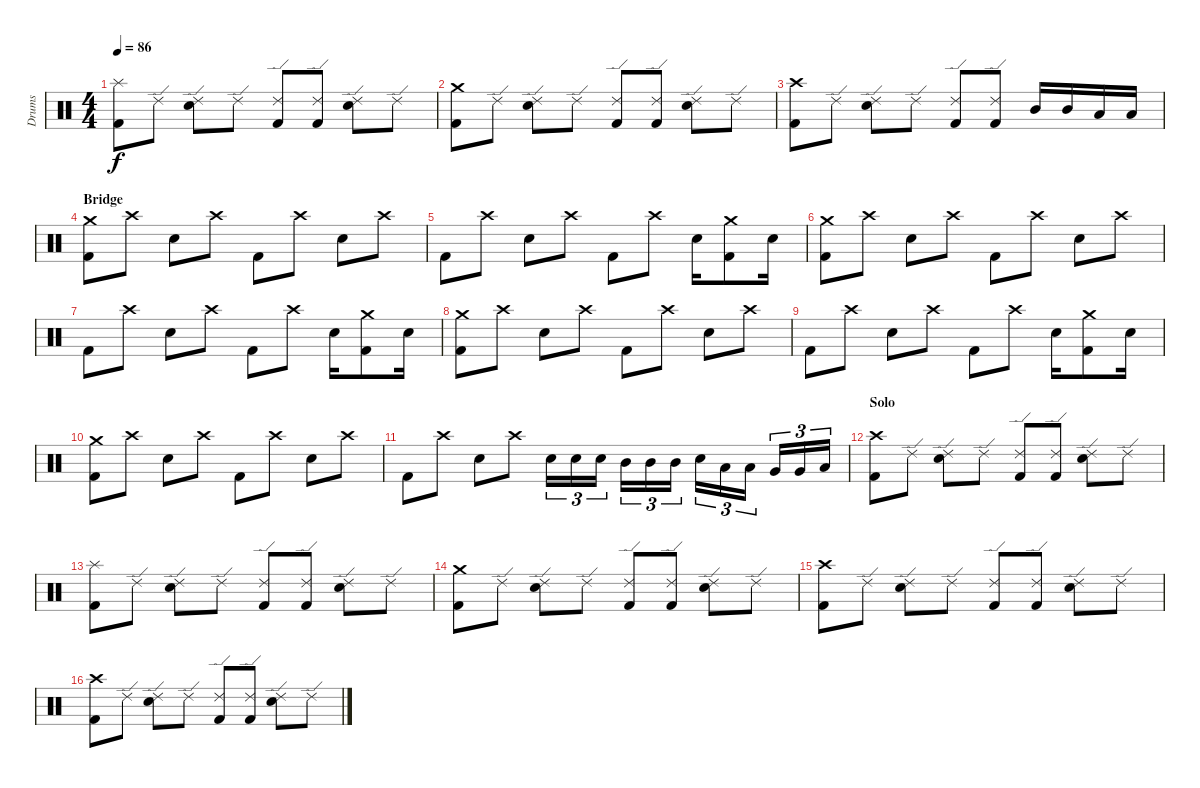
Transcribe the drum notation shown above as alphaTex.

\track ("Drums" "Drums") {instrument percussion}
\staff {score}
\articulation defaults
\ts (4 4)
\tempo 86
\clef neutral
\ks c
("Splash (hit)" "Kick (hit) 2").8{dy f} "Ride (edge) 2".8 ("Ride (edge) 2" "Snare (hit) 2").8 "Ride (edge) 2".8 ("Ride (edge) 2" "Kick (hit) 2").8 ("Ride (edge) 2" "Kick (hit) 2").8 ("Ride (edge) 2" "Snare (hit) 2").8 "Ride (edge) 2".8 |
("Crash medium (hit)" "Kick (hit) 2").8 "Ride (edge) 2".8 ("Ride (edge) 2" "Snare (hit) 2").8 "Ride (edge) 2".8 ("Ride (edge) 2" "Kick (hit) 2").8 ("Ride (edge) 2" "Kick (hit) 2").8 ("Ride (edge) 2" "Snare (hit) 2").8 "Ride (edge) 2".8 |
("Crash high (hit)" "Kick (hit) 2").8 "Ride (edge) 2".8 ("Ride (edge) 2" "Snare (hit) 2").8 "Ride (edge) 2".8 ("Ride (edge) 2" "Kick (hit) 2").8 ("Ride (edge) 2" "Kick (hit) 2").8 "Mid Tom (hit)".16 "Mid Tom (hit)".16 "Low Tom (hit)".16 "Low Tom (hit)".16 |
\section ("" "Bridge")
("Crash medium (hit)" "Kick (hit) 2").8 "Crash high (hit)".8 "Snare (hit) 2".8 "Crash high (hit)".8 "Kick (hit) 2".8 "Crash high (hit)".8 "Snare (hit) 2".8 "Crash high (hit)".8 |
"Kick (hit) 2".8 "Crash high (hit)".8 "Snare (hit) 2".8 "Crash high (hit)".8 "Kick (hit) 2".8 "Crash high (hit)".8 "Snare (hit) 2".16 ("Crash medium (hit)" "Kick (hit) 2").8 "Snare (hit) 2".16 |
("Crash medium (hit)" "Kick (hit) 2").8 "Crash high (hit)".8 "Snare (hit) 2".8 "Crash high (hit)".8 "Kick (hit) 2".8 "Crash high (hit)".8 "Snare (hit) 2".8 "Crash high (hit)".8 |
"Kick (hit) 2".8 "Crash high (hit)".8 "Snare (hit) 2".8 "Crash high (hit)".8 "Kick (hit) 2".8 "Crash high (hit)".8 "Snare (hit) 2".16 ("Crash medium (hit)" "Kick (hit) 2").8 "Snare (hit) 2".16 |
("Crash medium (hit)" "Kick (hit) 2").8 "Crash high (hit)".8 "Snare (hit) 2".8 "Crash high (hit)".8 "Kick (hit) 2".8 "Crash high (hit)".8 "Snare (hit) 2".8 "Crash high (hit)".8 |
"Kick (hit) 2".8 "Crash high (hit)".8 "Snare (hit) 2".8 "Crash high (hit)".8 "Kick (hit) 2".8 "Crash high (hit)".8 "Snare (hit) 2".16 ("Crash medium (hit)" "Kick (hit) 2").8 "Snare (hit) 2".16 |
("Crash medium (hit)" "Kick (hit) 2").8 "Crash high (hit)".8 "Snare (hit) 2".8 "Crash high (hit)".8 "Kick (hit) 2".8 "Crash high (hit)".8 "Snare (hit) 2".8 "Crash high (hit)".8 |
"Kick (hit) 2".8 "Crash high (hit)".8 "Snare (hit) 2".8 "Crash high (hit)".8 "Snare (hit) 2".16{tu (3 2)} "Snare (hit) 2".16{tu (3 2)} "Snare (hit) 2".16{tu (3 2)} "Mid Tom (hit)".16{tu (3 2)} "Mid Tom (hit)".16{tu (3 2)} "Mid Tom (hit)".16{tu (3 2)} "Snare (hit) 2".16{tu (3 2)} "Low Tom (hit)".16{tu (3 2)} "Low Tom (hit)".16{tu (3 2)} "Very Low Tom (hit)".16{tu (3 2)} "Very Low Tom (hit)".16{tu (3 2)} "Low Floor Tom (hit)".16{tu (3 2)} |
\section ("" "Solo")
("Crash high (hit)" "Kick (hit) 2").8 "Ride (edge) 2".8 ("Ride (edge) 2" "Snare (hit) 2").8 "Ride (edge) 2".8 ("Ride (edge) 2" "Kick (hit) 2").8 ("Ride (edge) 2" "Kick (hit) 2").8 ("Ride (edge) 2" "Snare (hit) 2").8 "Ride (edge) 2".8 |
("Splash (hit)" "Kick (hit) 2").8 "Ride (edge) 2".8 ("Ride (edge) 2" "Snare (hit) 2").8 "Ride (edge) 2".8 ("Ride (edge) 2" "Kick (hit) 2").8 ("Ride (edge) 2" "Kick (hit) 2").8 ("Ride (edge) 2" "Snare (hit) 2").8 "Ride (edge) 2".8 |
("Crash medium (hit)" "Kick (hit) 2").8 "Ride (edge) 2".8 ("Ride (edge) 2" "Snare (hit) 2").8 "Ride (edge) 2".8 ("Ride (edge) 2" "Kick (hit) 2").8 ("Ride (edge) 2" "Kick (hit) 2").8 ("Ride (edge) 2" "Snare (hit) 2").8 "Ride (edge) 2".8 |
("Crash high (hit)" "Kick (hit) 2").8 "Ride (edge) 2".8 ("Ride (edge) 2" "Snare (hit) 2").8 "Ride (edge) 2".8 ("Ride (edge) 2" "Kick (hit) 2").8 ("Ride (edge) 2" "Kick (hit) 2").8 ("Ride (edge) 2" "Snare (hit) 2").8 "Ride (edge) 2".8 |
("Crash high (hit)" "Kick (hit) 2").8 "Ride (edge) 2".8 ("Ride (edge) 2" "Snare (hit) 2").8 "Ride (edge) 2".8 ("Ride (edge) 2" "Kick (hit) 2").8 ("Ride (edge) 2" "Kick (hit) 2").8 ("Ride (edge) 2" "Snare (hit) 2").8 "Ride (edge) 2".8
